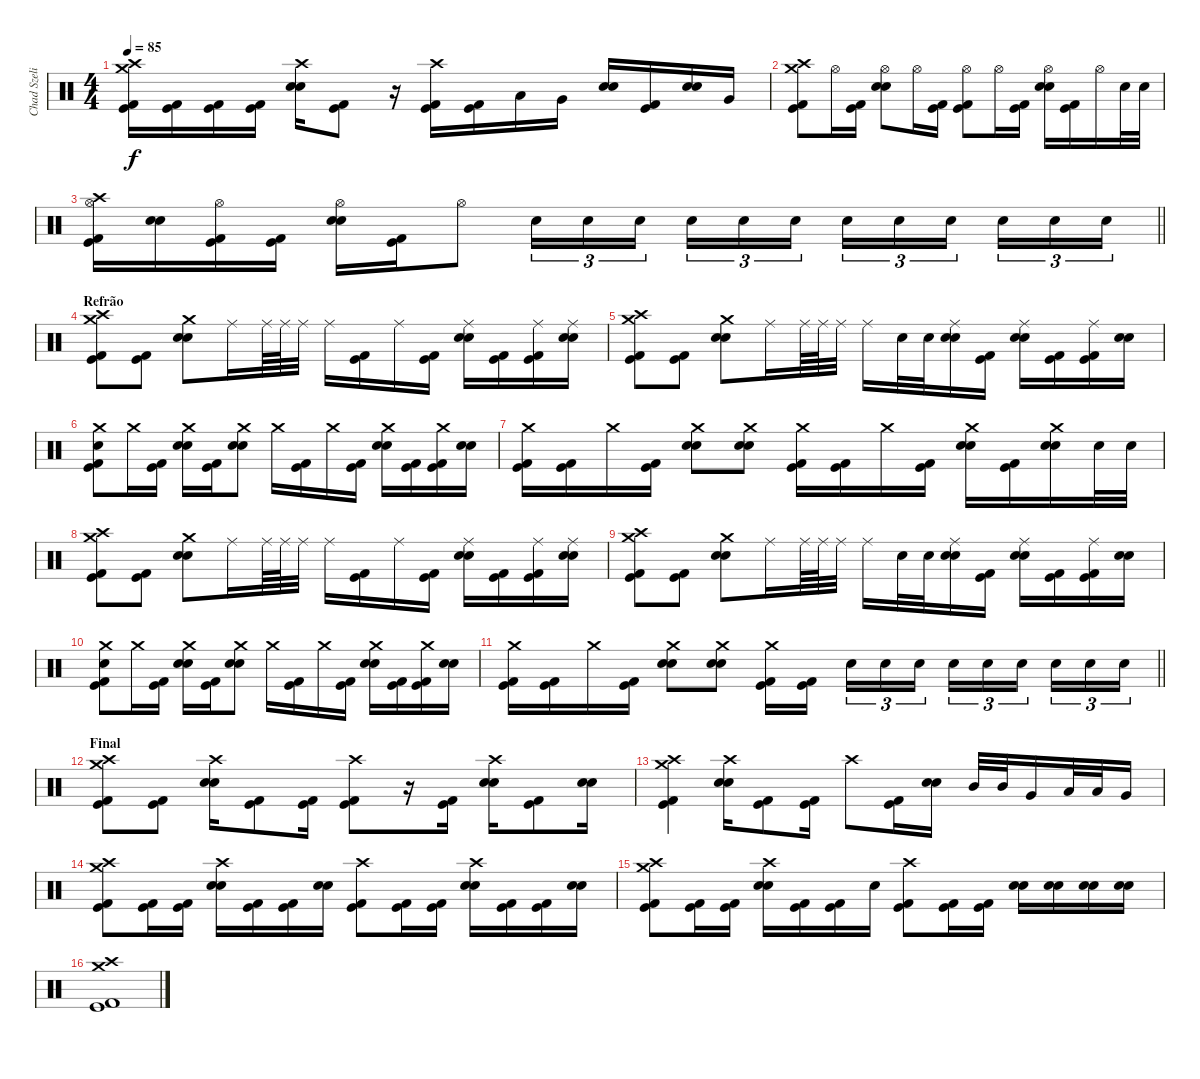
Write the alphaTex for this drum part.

\track ("Chad Szeliga" "Chad Szeli") {instrument percussion}
\staff {score}
\articulation defaults
\ts (4 4)
\tempo 85
\clef neutral
\ks c
("Crash high (hit)" "Kick (hit) 2" "Kick (hit)" "Crash medium (hit)").16{dy f} ("Kick (hit) 2" "Kick (hit)").16 ("Kick (hit) 2" "Kick (hit)").16 ("Kick (hit) 2" "Kick (hit)").16 ("Crash high (hit)" "Snare (hit) 2" "Snare (hit) 2").16 ("Kick (hit) 2" "Kick (hit)").8 r.16 ("Crash high (hit)" "Kick (hit) 2" "Kick (hit)").16 ("Kick (hit) 2" "Kick (hit)").16 "Low Tom (hit)".16 "Very Low Tom (hit)".16 ("Snare (hit) 2" "Snare (hit) 2").16 ("Kick (hit) 2" "Kick (hit)").16 ("Snare (hit) 2" "Snare (hit) 2").16 "Very Low Tom (hit)".16 |
("Crash high (hit)" "Kick (hit) 2" "Kick (hit)" "Crash medium (hit)").8 "Hi-Hat (open)".16 ("Kick (hit) 2" "Kick (hit)").16 ("Snare (hit) 2" "Snare (hit) 2" "Hi-Hat (open)").8 "Hi-Hat (open)".16 ("Kick (hit) 2" "Kick (hit)").16 ("Kick (hit) 2" "Kick (hit)" "Hi-Hat (open)").8 "Hi-Hat (open)".16 ("Kick (hit) 2" "Kick (hit)").16 ("Snare (hit) 2" "Snare (hit) 2" "Hi-Hat (open)").16 ("Kick (hit) 2" "Kick (hit)").16 "Hi-Hat (open)".16 "Snare (hit) 2".32 "Snare (hit) 2".32 |
\barLineRight lightlight
("Crash high (hit)" "Kick (hit) 2" "Kick (hit)" "Hi-Hat (open)").16 ("Snare (hit) 2" "Snare (hit) 2").16 ("Kick (hit) 2" "Kick (hit)" "Hi-Hat (open)").16 ("Kick (hit) 2" "Kick (hit)").16 ("Snare (hit) 2" "Snare (hit) 2" "Hi-Hat (open)").16 ("Kick (hit) 2" "Kick (hit)").16 "Hi-Hat (open)".8 "Snare (hit) 2".16{tu (3 2)} "Snare (hit) 2".16{tu (3 2)} "Snare (hit) 2".16{tu (3 2) beam splitsecondary} "Snare (hit) 2".16{tu (3 2)} "Snare (hit) 2".16{tu (3 2)} "Snare (hit) 2".16{tu (3 2)} "Snare (hit) 2".16{tu (3 2)} "Snare (hit) 2".16{tu (3 2)} "Snare (hit) 2".16{tu (3 2) beam splitsecondary} "Snare (hit) 2".16{tu (3 2)} "Snare (hit) 2".16{tu (3 2)} "Snare (hit) 2".16{tu (3 2)} |
\section ("" "Refrão")
("Crash high (hit)" "Kick (hit) 2" "Kick (hit)" "Crash medium (hit)").8 ("Kick (hit) 2" "Kick (hit)").8 ("Crash medium (hit)" "Snare (hit) 2" "Snare (hit) 2").8 "Ride (middle)".16 "Ride (middle)".64 "Ride (middle)".64 "Ride (middle)".32 "Ride (middle)".16 ("Kick (hit) 2" "Kick (hit)").16 "Ride (middle)".16 ("Kick (hit) 2" "Kick (hit)").16 ("Ride (middle)" "Snare (hit) 2" "Snare (hit) 2").16 ("Kick (hit) 2" "Kick (hit)").16 ("Ride (middle)" "Kick (hit) 2" "Kick (hit)").16 ("Ride (middle)" "Snare (hit) 2" "Snare (hit) 2").16 |
("Crash high (hit)" "Kick (hit) 2" "Kick (hit)" "Crash medium (hit)").8 ("Kick (hit) 2" "Kick (hit)").8 ("Crash medium (hit)" "Snare (hit) 2" "Snare (hit) 2").8 "Ride (middle)".16 "Ride (middle)".64 "Ride (middle)".64 "Ride (middle)".32 "Ride (middle)".16 "Snare (hit) 2".32 "Snare (hit) 2".32 ("Ride (middle)" "Snare (hit) 2" "Snare (hit) 2").16 ("Kick (hit) 2" "Kick (hit)").16 ("Ride (middle)" "Snare (hit) 2" "Snare (hit) 2").16 ("Kick (hit) 2" "Kick (hit)").16 ("Ride (middle)" "Kick (hit) 2" "Kick (hit)").16 ("Snare (hit) 2" "Snare (hit) 2").16 |
("Snare (hit)" "Kick (hit) 2" "Kick (hit)" "Crash medium (hit)").8 "Crash medium (hit)".16 ("Kick (hit) 2" "Kick (hit)").16 ("Crash medium (hit)" "Snare (hit) 2" "Snare (hit) 2").16 ("Kick (hit) 2" "Kick (hit)").16 ("Crash medium (hit)" "Snare (hit) 2" "Snare (hit) 2").8 "Crash medium (hit)".16 ("Kick (hit) 2" "Kick (hit)").16 "Crash medium (hit)".16 ("Kick (hit) 2" "Kick (hit)").16 ("Crash medium (hit)" "Snare (hit) 2" "Snare (hit) 2").16 ("Kick (hit) 2" "Kick (hit)").16 ("Crash medium (hit)" "Kick (hit) 2" "Kick (hit)").16 ("Snare (hit) 2" "Snare (hit) 2").16 |
("Crash medium (hit)" "Kick (hit) 2" "Kick (hit)").16 ("Kick (hit) 2" "Kick (hit)").16 "Crash medium (hit)".16 ("Kick (hit) 2" "Kick (hit)").16 ("Crash medium (hit)" "Snare (hit) 2" "Snare (hit) 2").8 ("Crash medium (hit)" "Snare (hit) 2" "Snare (hit) 2").8 ("Crash medium (hit)" "Kick (hit) 2" "Kick (hit)").16 ("Kick (hit) 2" "Kick (hit)").16 "Crash medium (hit)".16 ("Kick (hit) 2" "Kick (hit)").16 ("Crash medium (hit)" "Snare (hit) 2" "Snare (hit) 2").16 ("Kick (hit) 2" "Kick (hit)").16 ("Crash medium (hit)" "Snare (hit) 2" "Snare (hit) 2").16 "Snare (hit) 2".32 "Snare (hit) 2".32 |
("Crash high (hit)" "Kick (hit) 2" "Kick (hit)" "Crash medium (hit)").8 ("Kick (hit) 2" "Kick (hit)").8 ("Crash medium (hit)" "Snare (hit) 2" "Snare (hit) 2").8 "Ride (middle)".16 "Ride (middle)".64 "Ride (middle)".64 "Ride (middle)".32 "Ride (middle)".16 ("Kick (hit) 2" "Kick (hit)").16 "Ride (middle)".16 ("Kick (hit) 2" "Kick (hit)").16 ("Ride (middle)" "Snare (hit) 2" "Snare (hit) 2").16 ("Kick (hit) 2" "Kick (hit)").16 ("Ride (middle)" "Kick (hit) 2" "Kick (hit)").16 ("Ride (middle)" "Snare (hit) 2" "Snare (hit) 2").16 |
("Crash high (hit)" "Kick (hit) 2" "Kick (hit)" "Crash medium (hit)").8 ("Kick (hit) 2" "Kick (hit)").8 ("Crash medium (hit)" "Snare (hit) 2" "Snare (hit) 2").8 "Ride (middle)".16 "Ride (middle)".64 "Ride (middle)".64 "Ride (middle)".32 "Ride (middle)".16 "Snare (hit) 2".32 "Snare (hit) 2".32 ("Ride (middle)" "Snare (hit) 2" "Snare (hit) 2").16 ("Kick (hit) 2" "Kick (hit)").16 ("Ride (middle)" "Snare (hit) 2" "Snare (hit) 2").16 ("Kick (hit) 2" "Kick (hit)").16 ("Ride (middle)" "Kick (hit) 2" "Kick (hit)").16 ("Snare (hit) 2" "Snare (hit) 2").16 |
("Snare (hit)" "Kick (hit) 2" "Kick (hit)" "Crash medium (hit)").8 "Crash medium (hit)".16 ("Kick (hit) 2" "Kick (hit)").16 ("Crash medium (hit)" "Snare (hit) 2" "Snare (hit) 2").16 ("Kick (hit) 2" "Kick (hit)").16 ("Crash medium (hit)" "Snare (hit) 2" "Snare (hit) 2").8 "Crash medium (hit)".16 ("Kick (hit) 2" "Kick (hit)").16 "Crash medium (hit)".16 ("Kick (hit) 2" "Kick (hit)").16 ("Crash medium (hit)" "Snare (hit) 2" "Snare (hit) 2").16 ("Kick (hit) 2" "Kick (hit)").16 ("Crash medium (hit)" "Kick (hit) 2" "Kick (hit)").16 ("Snare (hit) 2" "Snare (hit) 2").16 |
\barLineRight lightlight
("Crash medium (hit)" "Kick (hit) 2" "Kick (hit)").16 ("Kick (hit) 2" "Kick (hit)").16 "Crash medium (hit)".16 ("Kick (hit) 2" "Kick (hit)").16 ("Crash medium (hit)" "Snare (hit) 2" "Snare (hit) 2").8 ("Crash medium (hit)" "Snare (hit) 2" "Snare (hit) 2").8 ("Crash medium (hit)" "Kick (hit) 2" "Kick (hit)").16 ("Kick (hit) 2" "Kick (hit)").16{beam splitsecondary} "Snare (hit) 2".16{tu (3 2)} "Snare (hit) 2".16{tu (3 2)} "Snare (hit) 2".16{tu (3 2)} "Snare (hit) 2".16{tu (3 2)} "Snare (hit) 2".16{tu (3 2)} "Snare (hit) 2".16{tu (3 2) beam splitsecondary} "Snare (hit) 2".16{tu (3 2)} "Snare (hit) 2".16{tu (3 2)} "Snare (hit) 2".16{tu (3 2)} |
\section ("" "Final")
("Crash high (hit)" "Kick (hit) 2" "Kick (hit)" "Crash medium (hit)").8 ("Kick (hit) 2" "Kick (hit)").8 ("Crash high (hit)" "Snare (hit) 2" "Snare (hit) 2").16 ("Kick (hit) 2" "Kick (hit)").8 ("Kick (hit) 2" "Kick (hit)").16 ("Crash high (hit)" "Kick (hit) 2" "Kick (hit)").8 r.16 ("Kick (hit) 2" "Kick (hit)").16{beam Down} ("Crash high (hit)" "Snare (hit) 2" "Snare (hit) 2").16 ("Kick (hit) 2" "Kick (hit)").8 ("Snare (hit) 2" "Snare (hit) 2").16 |
("Crash high (hit)" "Kick (hit) 2" "Kick (hit)" "Crash medium (hit)").4 ("Crash high (hit)" "Snare (hit) 2" "Snare (hit) 2").16 ("Kick (hit) 2" "Kick (hit)").8 ("Kick (hit) 2" "Kick (hit)").16 "Crash high (hit)".8 ("Kick (hit) 2" "Kick (hit)").16 ("Snare (hit) 2" "Snare (hit) 2").16 "Mid Tom (hit)".32 "Mid Tom (hit)".32 "Very Low Tom (hit)".16 "Low Tom (hit)".32 "Low Tom (hit)".32 "Very Low Tom (hit)".16 |
("Crash high (hit)" "Kick (hit) 2" "Kick (hit)" "Crash medium (hit)").8 ("Kick (hit) 2" "Kick (hit)").16 ("Kick (hit) 2" "Kick (hit)").16 ("Crash high (hit)" "Snare (hit) 2" "Snare (hit) 2").16 ("Kick (hit) 2" "Kick (hit)").16 ("Kick (hit) 2" "Kick (hit)").16 ("Snare (hit) 2" "Snare (hit) 2").16 ("Crash high (hit)" "Kick (hit) 2" "Kick (hit)").8 ("Kick (hit) 2" "Kick (hit)").16 ("Kick (hit) 2" "Kick (hit)").16 ("Crash high (hit)" "Snare (hit) 2" "Snare (hit) 2").16 ("Kick (hit) 2" "Kick (hit)").16 ("Kick (hit) 2" "Kick (hit)").16 ("Snare (hit) 2" "Snare (hit) 2").16 |
("Crash high (hit)" "Kick (hit) 2" "Kick (hit)" "Crash medium (hit)").8 ("Kick (hit) 2" "Kick (hit)").16 ("Kick (hit) 2" "Kick (hit)").16 ("Crash high (hit)" "Snare (hit) 2" "Snare (hit) 2").16 ("Kick (hit) 2" "Kick (hit)").16 ("Kick (hit) 2" "Kick (hit)").16 "Snare (hit) 2".16 ("Crash high (hit)" "Kick (hit) 2" "Kick (hit)").8 ("Kick (hit) 2" "Kick (hit)").16 ("Kick (hit) 2" "Kick (hit)").16 ("Snare (hit) 2" "Snare (hit) 2").16 ("Snare (hit) 2" "Snare (hit) 2").16 ("Snare (hit) 2" "Snare (hit) 2").16 ("Snare (hit) 2" "Snare (hit) 2").16 |
("Crash high (hit)" "Kick (hit) 2" "Kick (hit)" "Crash medium (hit)").1
